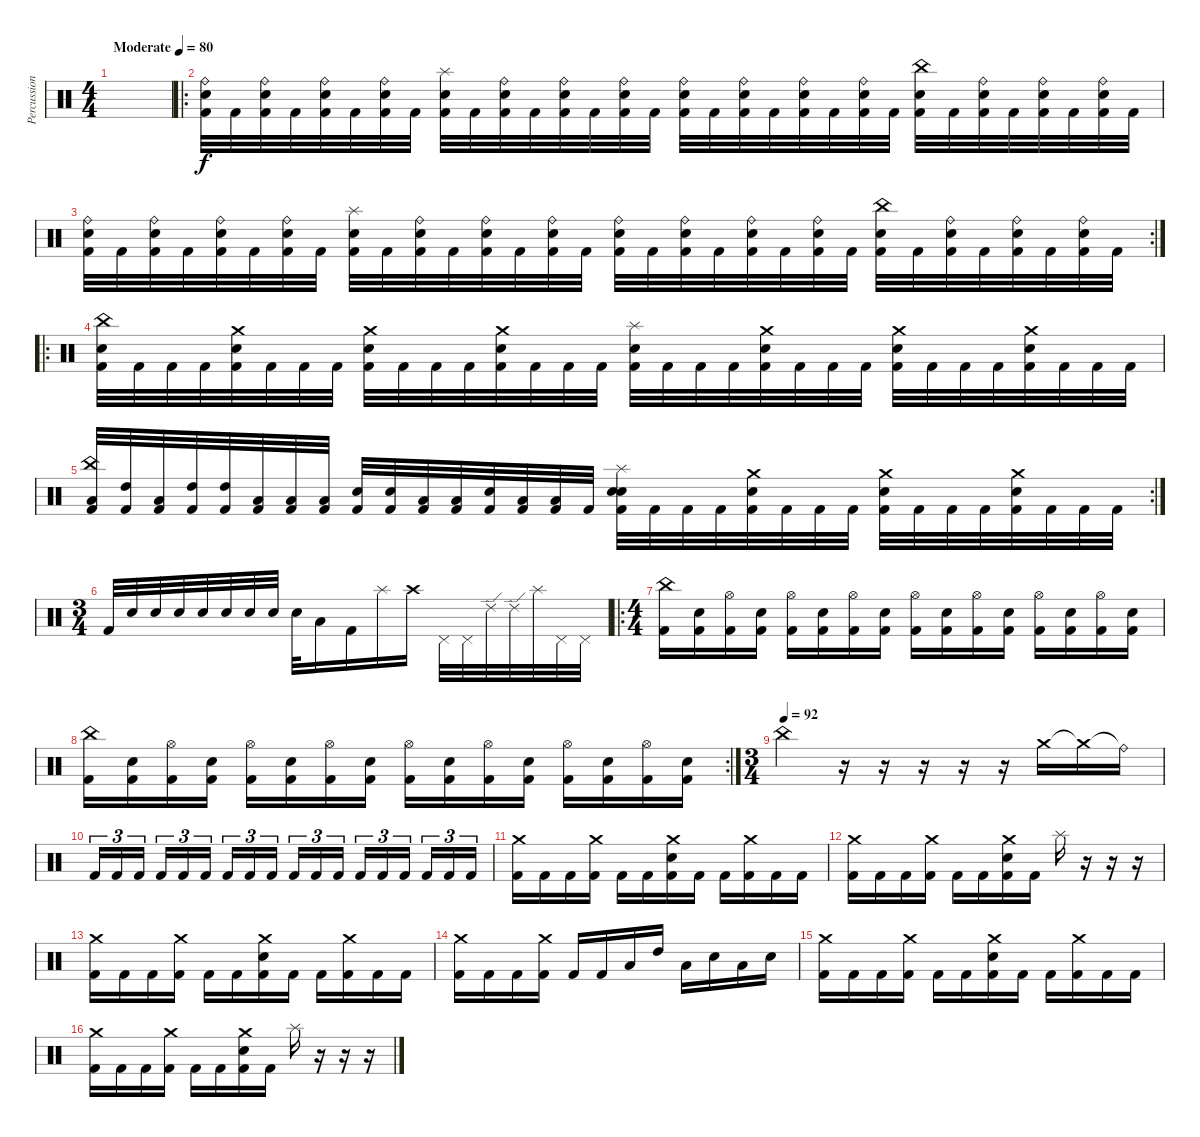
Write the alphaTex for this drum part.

\track ("Percussion [Optional]" "Percussion") {instrument percussion}
\staff {score}
\articulation defaults
\ts (4 4)
\tempo (80 "Moderate")
\clef neutral
\ks c
|
\ro
("Kick (hit) 2" "Electric Snare (hit)" "Ride (bell)").32 "Kick (hit) 2".32 ("Kick (hit) 2" "Electric Snare (hit)" "Ride (bell)").32 "Kick (hit) 2".32 ("Kick (hit) 2" "Electric Snare (hit)" "Ride (bell)").32 "Kick (hit) 2".32 ("Kick (hit) 2" "Electric Snare (hit)" "Ride (bell)").32 "Kick (hit) 2".32 ("Kick (hit) 2" "Electric Snare (hit)" "Splash (hit)").32 "Kick (hit) 2".32 ("Kick (hit) 2" "Electric Snare (hit)" "Ride (bell)").32 "Kick (hit) 2".32 ("Kick (hit) 2" "Electric Snare (hit)" "Ride (bell)").32 "Kick (hit) 2".32 ("Kick (hit) 2" "Electric Snare (hit)" "Ride (bell)").32 "Kick (hit) 2".32 ("Kick (hit) 2" "Electric Snare (hit)" "Ride (bell)").32 "Kick (hit) 2".32 ("Kick (hit) 2" "Electric Snare (hit)" "Ride (bell)").32 "Kick (hit) 2".32 ("Kick (hit) 2" "Electric Snare (hit)" "Ride (bell)").32 "Kick (hit) 2".32 ("Kick (hit) 2" "Electric Snare (hit)" "Ride (bell)").32 "Kick (hit) 2".32 ("Kick (hit) 2" "Electric Snare (hit)" "China (hit)").32 "Kick (hit) 2".32 ("Kick (hit) 2" "Electric Snare (hit)" "Ride (bell)").32 "Kick (hit) 2".32 ("Kick (hit) 2" "Electric Snare (hit)" "Ride (bell)").32 "Kick (hit) 2".32 ("Kick (hit) 2" "Electric Snare (hit)" "Ride (bell)").32 "Kick (hit) 2".32 |
\rc 2
("Kick (hit) 2" "Electric Snare (hit)" "Ride (bell)").32 "Kick (hit) 2".32 ("Kick (hit) 2" "Electric Snare (hit)" "Ride (bell)").32 "Kick (hit) 2".32 ("Kick (hit) 2" "Electric Snare (hit)" "Ride (bell)").32 "Kick (hit) 2".32 ("Kick (hit) 2" "Electric Snare (hit)" "Ride (bell)").32 "Kick (hit) 2".32 ("Kick (hit) 2" "Electric Snare (hit)" "Splash (hit)").32 "Kick (hit) 2".32 ("Kick (hit) 2" "Electric Snare (hit)" "Ride (bell)").32 "Kick (hit) 2".32 ("Kick (hit) 2" "Electric Snare (hit)" "Ride (bell)").32 "Kick (hit) 2".32 ("Kick (hit) 2" "Electric Snare (hit)" "Ride (bell)").32 "Kick (hit) 2".32 ("Kick (hit) 2" "Electric Snare (hit)" "Ride (bell)").32 "Kick (hit) 2".32 ("Kick (hit) 2" "Electric Snare (hit)" "Ride (bell)").32 "Kick (hit) 2".32 ("Kick (hit) 2" "Electric Snare (hit)" "Ride (bell)").32 "Kick (hit) 2".32 ("Kick (hit) 2" "Electric Snare (hit)" "Ride (bell)").32 "Kick (hit) 2".32 ("Kick (hit) 2" "Electric Snare (hit)" "China (hit)").32 "Kick (hit) 2".32 ("Kick (hit) 2" "Electric Snare (hit)" "Ride (bell)").32 "Kick (hit) 2".32 ("Kick (hit) 2" "Electric Snare (hit)" "Ride (bell)").32 "Kick (hit) 2".32 ("Kick (hit) 2" "Electric Snare (hit)" "Ride (bell)").32 "Kick (hit) 2".32 |
\ro
("Kick (hit) 2" "Electric Snare (hit)" "China (hit)").32 "Kick (hit) 2".32 "Kick (hit) 2".32 "Kick (hit) 2".32 ("Kick (hit) 2" "Electric Snare (hit)" "Crash medium (hit)").32 "Kick (hit) 2".32 "Kick (hit) 2".32 "Kick (hit) 2".32 ("Kick (hit) 2" "Electric Snare (hit)" "Crash medium (hit)").32 "Kick (hit) 2".32 "Kick (hit) 2".32 "Kick (hit) 2".32 ("Kick (hit) 2" "Electric Snare (hit)" "Crash medium (hit)").32 "Kick (hit) 2".32 "Kick (hit) 2".32 "Kick (hit) 2".32 ("Kick (hit) 2" "Electric Snare (hit)" "Splash (hit)").32 "Kick (hit) 2".32 "Kick (hit) 2".32 "Kick (hit) 2".32 ("Kick (hit) 2" "Electric Snare (hit)" "Crash medium (hit)").32 "Kick (hit) 2".32 "Kick (hit) 2".32 "Kick (hit) 2".32 ("Kick (hit) 2" "Electric Snare (hit)" "Crash medium (hit)").32 "Kick (hit) 2".32 "Kick (hit) 2".32 "Kick (hit) 2".32 ("Kick (hit) 2" "Electric Snare (hit)" "Crash medium (hit)").32 "Kick (hit) 2".32 "Kick (hit) 2".32 "Kick (hit) 2".32 |
\rc 2
("Kick (hit) 2" "Low Tom (hit)" "China (hit)").32 ("Kick (hit) 2" "High Tom (hit)").32 ("Kick (hit) 2" "Low Tom (hit)").32 ("Kick (hit) 2" "High Tom (hit)").32 ("Kick (hit) 2" "High Tom (hit)").32 ("Kick (hit) 2" "Low Tom (hit)").32 ("Kick (hit) 2" "Low Tom (hit)").32 ("Kick (hit) 2" "Low Floor Tom (hit)").32 ("Kick (hit) 2" "Electric Snare (hit)").32 ("Kick (hit) 2" "Electric Snare (hit)").32 ("Kick (hit) 2" "Low Floor Tom (hit)").32 ("Kick (hit) 2" "Low Tom (hit)").32 ("Kick (hit) 2" "Electric Snare (hit)").32 ("Kick (hit) 2" "Low Tom (hit)").32 ("Kick (hit) 2" "Low Floor Tom (hit)").32 "Kick (hit) 2".32 ("Kick (hit) 2" "Electric Snare (hit)" "Splash (hit)" "Electric Snare (hit)").32 "Kick (hit) 2".32 "Kick (hit) 2".32 "Kick (hit) 2".32 ("Kick (hit) 2" "Electric Snare (hit)" "Crash medium (hit)").32 "Kick (hit) 2".32 "Kick (hit) 2".32 "Kick (hit) 2".32 ("Kick (hit) 2" "Electric Snare (hit)" "Crash medium (hit)").32 "Kick (hit) 2".32 "Kick (hit) 2".32 "Kick (hit) 2".32 ("Kick (hit) 2" "Electric Snare (hit)" "Crash medium (hit)").32 "Kick (hit) 2".32 "Kick (hit) 2".32 "Kick (hit) 2".32 |
\ts (3 4)
"Kick (hit) 2".32 "Electric Snare (hit)".32 "Electric Snare (hit)".32 "Electric Snare (hit)".32 "Electric Snare (hit)".32 "Electric Snare (hit)".32 "Electric Snare (hit)".32 "Electric Snare (hit)".32 "Electric Snare (hit)".32 "Low Tom (hit)".16 "Kick (hit) 2".16 "Splash (hit)".16 "Crash high (hit)".16 "Pedal Hi-Hat (hit)".32 "Pedal Hi-Hat (hit)".32 "Ride (edge) 2".32 "Ride (edge) 2".32 "Splash (hit)".32 "Pedal Hi-Hat (hit)".32 "Pedal Hi-Hat (hit)".32 |
\ro
\ts (4 4)
("Kick (hit) 2" "China (hit)").16 ("Kick (hit) 2" "Electric Snare (hit)").16 ("Kick (hit) 2" "Hi-Hat (open)").16 ("Kick (hit) 2" "Electric Snare (hit)").16 ("Kick (hit) 2" "Hi-Hat (open)").16 ("Kick (hit) 2" "Electric Snare (hit)").16 ("Kick (hit) 2" "Hi-Hat (open)").16 ("Kick (hit) 2" "Electric Snare (hit)").16 ("Kick (hit) 2" "Hi-Hat (open)").16 ("Kick (hit) 2" "Electric Snare (hit)").16 ("Kick (hit) 2" "Hi-Hat (open)").16 ("Kick (hit) 2" "Electric Snare (hit)").16 ("Kick (hit) 2" "Hi-Hat (open)").16 ("Kick (hit) 2" "Electric Snare (hit)").16 ("Kick (hit) 2" "Hi-Hat (open)").16 ("Kick (hit) 2" "Electric Snare (hit)").16 |
\rc 2
("Kick (hit) 2" "China (hit)").16 ("Kick (hit) 2" "Electric Snare (hit)").16 ("Kick (hit) 2" "Hi-Hat (open)").16 ("Kick (hit) 2" "Electric Snare (hit)").16 ("Kick (hit) 2" "Hi-Hat (open)").16 ("Kick (hit) 2" "Electric Snare (hit)").16 ("Kick (hit) 2" "Hi-Hat (open)").16 ("Kick (hit) 2" "Electric Snare (hit)").16 ("Kick (hit) 2" "Hi-Hat (open)").16 ("Kick (hit) 2" "Electric Snare (hit)").16 ("Kick (hit) 2" "Hi-Hat (open)").16 ("Kick (hit) 2" "Electric Snare (hit)").16 ("Kick (hit) 2" "Hi-Hat (open)").16 ("Kick (hit) 2" "Electric Snare (hit)").16 ("Kick (hit) 2" "Hi-Hat (open)").16 ("Kick (hit) 2" "Electric Snare (hit)").16 |
\ts (3 4)
\tempo (92)
"China (hit)".4 r.16 r.16 r.16 r.16 r.16 "Crash medium (hit)".16 "Crash medium (hit)"{t}.16 "Ride (bell)"{t}.16 |
"Kick (hit) 2".16{tu (3 2)} "Kick (hit) 2".16{tu (3 2)} "Kick (hit) 2".16{tu (3 2) beam splitsecondary} "Kick (hit) 2".16{tu (3 2)} "Kick (hit) 2".16{tu (3 2)} "Kick (hit) 2".16{tu (3 2)} "Kick (hit) 2".16{tu (3 2)} "Kick (hit) 2".16{tu (3 2)} "Kick (hit) 2".16{tu (3 2) beam splitsecondary} "Kick (hit) 2".16{tu (3 2)} "Kick (hit) 2".16{tu (3 2)} "Kick (hit) 2".16{tu (3 2)} "Kick (hit) 2".16{tu (3 2)} "Kick (hit) 2".16{tu (3 2)} "Kick (hit) 2".16{tu (3 2) beam splitsecondary} "Kick (hit) 2".16{tu (3 2)} "Kick (hit) 2".16{tu (3 2)} "Kick (hit) 2".16{tu (3 2)} |
("Kick (hit) 2" "Crash medium (hit)").16 "Kick (hit) 2".16 "Kick (hit) 2".16 ("Kick (hit) 2" "Crash medium (hit)").16 "Kick (hit) 2".16 "Kick (hit) 2".16 ("Kick (hit) 2" "Electric Snare (hit)" "Crash medium (hit)").16 "Kick (hit) 2".16 "Kick (hit) 2".16 ("Kick (hit) 2" "Crash medium (hit)").16 "Kick (hit) 2".16 "Kick (hit) 2".16 |
("Kick (hit) 2" "Crash medium (hit)").16 "Kick (hit) 2".16 "Kick (hit) 2".16 ("Kick (hit) 2" "Crash medium (hit)").16 "Kick (hit) 2".16 "Kick (hit) 2".16 ("Kick (hit) 2" "Electric Snare (hit)" "Crash medium (hit)").16 "Kick (hit) 2".16 "Splash (hit)".16 r.16 r.16 r.16 |
("Kick (hit) 2" "Crash medium (hit)").16 "Kick (hit) 2".16 "Kick (hit) 2".16 ("Kick (hit) 2" "Crash medium (hit)").16 "Kick (hit) 2".16 "Kick (hit) 2".16 ("Kick (hit) 2" "Electric Snare (hit)" "Crash medium (hit)").16 "Kick (hit) 2".16 "Kick (hit) 2".16 ("Kick (hit) 2" "Crash medium (hit)").16 "Kick (hit) 2".16 "Kick (hit) 2".16 |
("Kick (hit) 2" "Crash medium (hit)").16 "Kick (hit) 2".16 "Kick (hit) 2".16 ("Kick (hit) 2" "Crash medium (hit)").16 "Kick (hit) 2".16 "Kick (hit) 2".16 "Low Tom (hit)".16 "High Tom (hit)".16 "Low Tom (hit)".16 "Electric Snare (hit)".16 "Low Tom (hit)".16 "Electric Snare (hit)".16 |
("Kick (hit) 2" "Crash medium (hit)").16 "Kick (hit) 2".16 "Kick (hit) 2".16 ("Kick (hit) 2" "Crash medium (hit)").16 "Kick (hit) 2".16 "Kick (hit) 2".16 ("Kick (hit) 2" "Electric Snare (hit)" "Crash medium (hit)").16 "Kick (hit) 2".16 "Kick (hit) 2".16 ("Kick (hit) 2" "Crash medium (hit)").16 "Kick (hit) 2".16 "Kick (hit) 2".16 |
("Kick (hit) 2" "Crash medium (hit)").16 "Kick (hit) 2".16 "Kick (hit) 2".16 ("Kick (hit) 2" "Crash medium (hit)").16 "Kick (hit) 2".16 "Kick (hit) 2".16 ("Kick (hit) 2" "Electric Snare (hit)" "Crash medium (hit)").16 "Kick (hit) 2".16 "Splash (hit)".16 r.16 r.16 r.16
